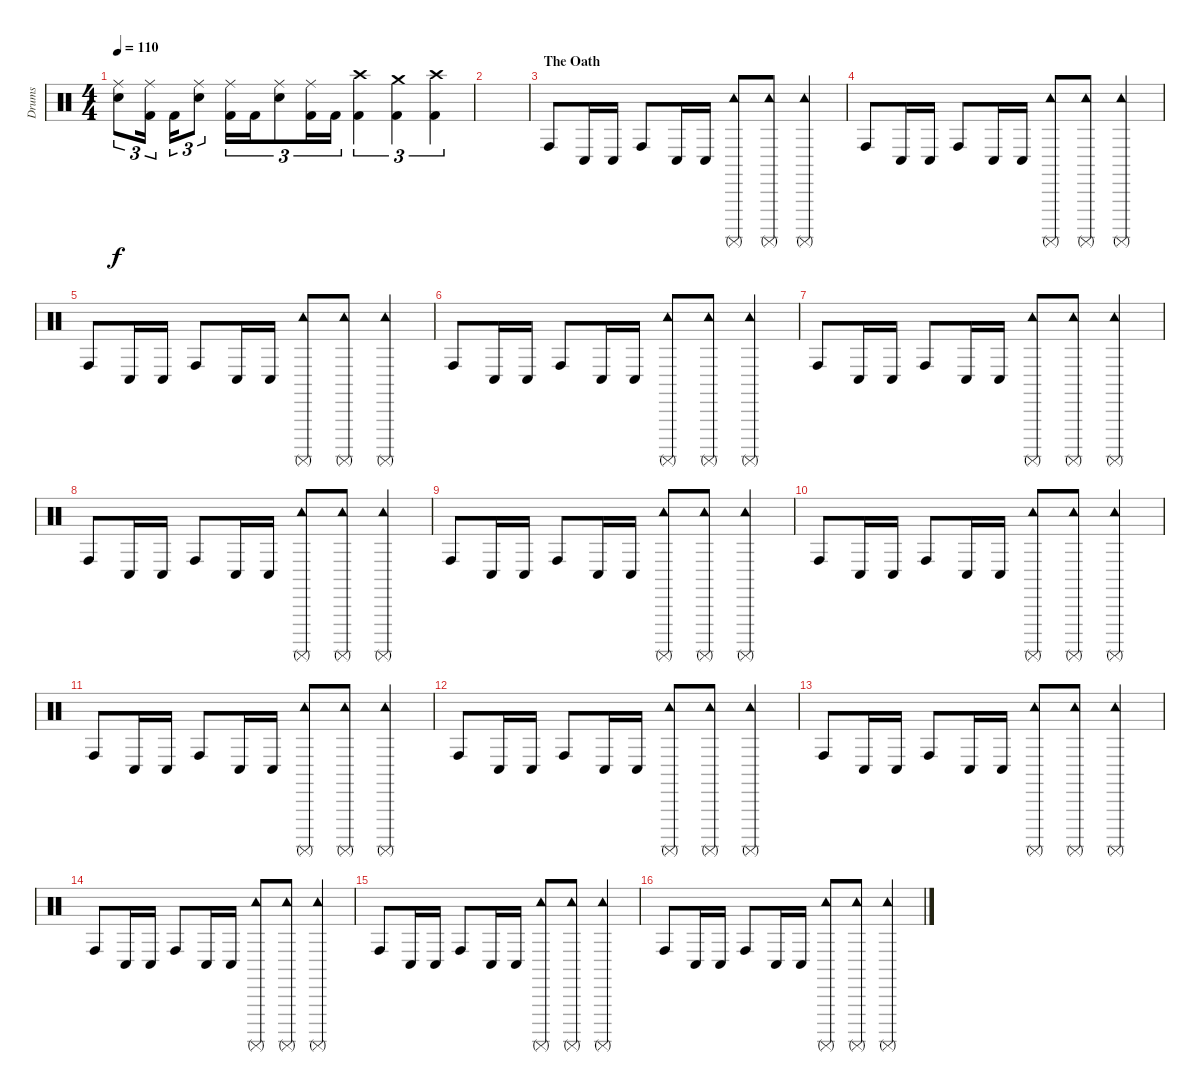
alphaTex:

\track ("Drums" "Drums") {instrument percussion}
\staff {score}
\articulation defaults
\ts (4 4)
\tempo 110
\clef neutral
\ks c
("Ride (middle)" "Electric Snare (hit)").8{tu (3 2) dy f} ("Ride (middle)" "Kick (hit) 2").16{tu (3 2)} "Kick (hit) 2".16{tu (3 2)} ("Ride (middle)" "Electric Snare (hit)").8{tu (3 2)} ("Ride (middle)" "Kick (hit) 2").16{tu (3 2)} "Kick (hit) 2".16{tu (3 2)} ("Ride (middle)" "Electric Snare (hit)").8{tu (3 2)} ("Ride (middle)" "Kick (hit) 2").16{tu (3 2)} "Kick (hit) 2".16{tu (3 2)} ("Crash high (hit)" "Kick (hit) 2").4{tu (3 2)} ("Crash medium (hit)" "Kick (hit) 2").4{tu (3 2)} ("Crash high (hit)" "Kick (hit) 2").4{tu (3 2)} |
|
\section ("" "The Oath")
"Conga high (hit)".8 "Conga low (hit)".16 "Conga low (hit)".16 "Conga high (hit)".8 "Conga low (hit)".16 "Conga low (hit)".16 ("Tambourine (hit)" "Surdo (mute)").8 ("Tambourine (hit)" "Surdo (mute)").8 ("Tambourine (hit)" "Surdo (mute)").4 |
"Conga high (hit)".8 "Conga low (hit)".16 "Conga low (hit)".16 "Conga high (hit)".8 "Conga low (hit)".16 "Conga low (hit)".16 ("Tambourine (hit)" "Surdo (mute)").8 ("Tambourine (hit)" "Surdo (mute)").8 ("Tambourine (hit)" "Surdo (mute)").4 |
"Conga high (hit)".8 "Conga low (hit)".16 "Conga low (hit)".16 "Conga high (hit)".8 "Conga low (hit)".16 "Conga low (hit)".16 ("Tambourine (hit)" "Surdo (mute)").8 ("Tambourine (hit)" "Surdo (mute)").8 ("Tambourine (hit)" "Surdo (mute)").4 |
"Conga high (hit)".8 "Conga low (hit)".16 "Conga low (hit)".16 "Conga high (hit)".8 "Conga low (hit)".16 "Conga low (hit)".16 ("Tambourine (hit)" "Surdo (mute)").8 ("Tambourine (hit)" "Surdo (mute)").8 ("Tambourine (hit)" "Surdo (mute)").4 |
"Conga high (hit)".8 "Conga low (hit)".16 "Conga low (hit)".16 "Conga high (hit)".8 "Conga low (hit)".16 "Conga low (hit)".16 ("Tambourine (hit)" "Surdo (mute)").8 ("Tambourine (hit)" "Surdo (mute)").8 ("Tambourine (hit)" "Surdo (mute)").4 |
"Conga high (hit)".8 "Conga low (hit)".16 "Conga low (hit)".16 "Conga high (hit)".8 "Conga low (hit)".16 "Conga low (hit)".16 ("Tambourine (hit)" "Surdo (mute)").8 ("Tambourine (hit)" "Surdo (mute)").8 ("Tambourine (hit)" "Surdo (mute)").4 |
"Conga high (hit)".8 "Conga low (hit)".16 "Conga low (hit)".16 "Conga high (hit)".8 "Conga low (hit)".16 "Conga low (hit)".16 ("Tambourine (hit)" "Surdo (mute)").8 ("Tambourine (hit)" "Surdo (mute)").8 ("Tambourine (hit)" "Surdo (mute)").4 |
"Conga high (hit)".8 "Conga low (hit)".16 "Conga low (hit)".16 "Conga high (hit)".8 "Conga low (hit)".16 "Conga low (hit)".16 ("Tambourine (hit)" "Surdo (mute)").8 ("Tambourine (hit)" "Surdo (mute)").8 ("Tambourine (hit)" "Surdo (mute)").4 |
"Conga high (hit)".8 "Conga low (hit)".16 "Conga low (hit)".16 "Conga high (hit)".8 "Conga low (hit)".16 "Conga low (hit)".16 ("Tambourine (hit)" "Surdo (mute)").8 ("Tambourine (hit)" "Surdo (mute)").8 ("Tambourine (hit)" "Surdo (mute)").4 |
"Conga high (hit)".8 "Conga low (hit)".16 "Conga low (hit)".16 "Conga high (hit)".8 "Conga low (hit)".16 "Conga low (hit)".16 ("Tambourine (hit)" "Surdo (mute)").8 ("Tambourine (hit)" "Surdo (mute)").8 ("Tambourine (hit)" "Surdo (mute)").4 |
"Conga high (hit)".8 "Conga low (hit)".16 "Conga low (hit)".16 "Conga high (hit)".8 "Conga low (hit)".16 "Conga low (hit)".16 ("Tambourine (hit)" "Surdo (mute)").8 ("Tambourine (hit)" "Surdo (mute)").8 ("Tambourine (hit)" "Surdo (mute)").4 |
"Conga high (hit)".8 "Conga low (hit)".16 "Conga low (hit)".16 "Conga high (hit)".8 "Conga low (hit)".16 "Conga low (hit)".16 ("Tambourine (hit)" "Surdo (mute)").8 ("Tambourine (hit)" "Surdo (mute)").8 ("Tambourine (hit)" "Surdo (mute)").4 |
"Conga high (hit)".8 "Conga low (hit)".16 "Conga low (hit)".16 "Conga high (hit)".8 "Conga low (hit)".16 "Conga low (hit)".16 ("Tambourine (hit)" "Surdo (mute)").8 ("Tambourine (hit)" "Surdo (mute)").8 ("Tambourine (hit)" "Surdo (mute)").4 |
"Conga high (hit)".8 "Conga low (hit)".16 "Conga low (hit)".16 "Conga high (hit)".8 "Conga low (hit)".16 "Conga low (hit)".16 ("Tambourine (hit)" "Surdo (mute)").8 ("Tambourine (hit)" "Surdo (mute)").8 ("Tambourine (hit)" "Surdo (mute)").4
